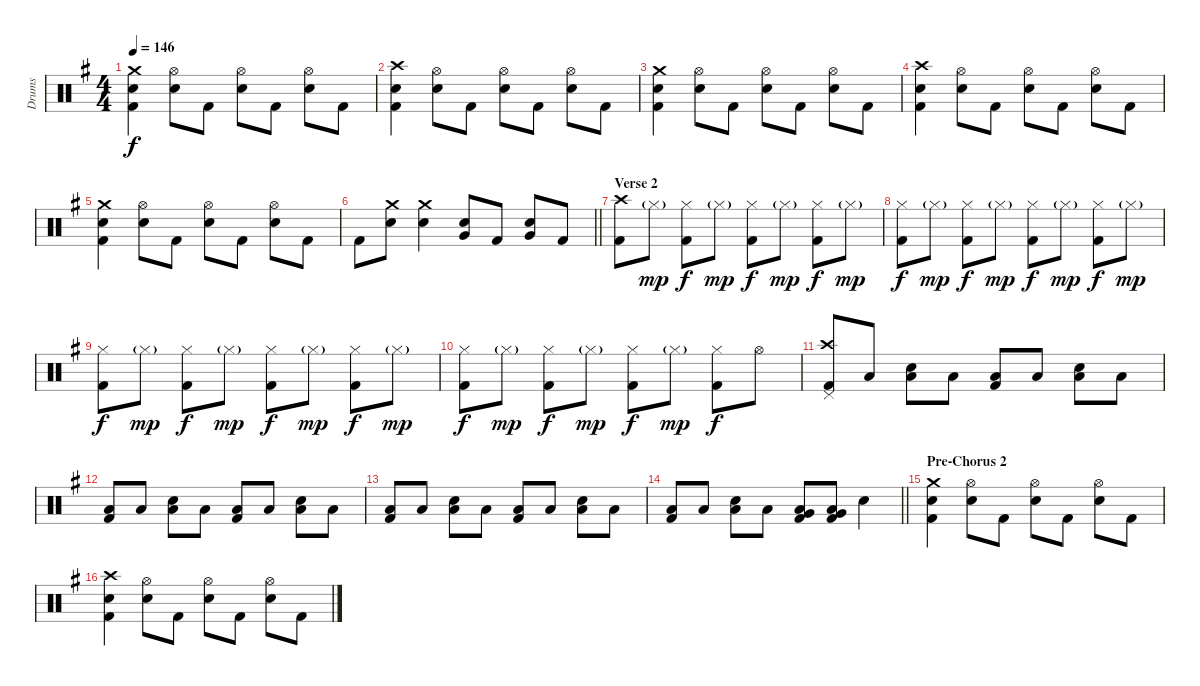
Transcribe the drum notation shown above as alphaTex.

\track ("Drums" "Drums") {instrument percussion}
\staff {score}
\articulation defaults
\ts (4 4)
\tempo 146
\clef neutral
\ks g
("Crash medium (hit)" "Electric Snare (hit)" "Kick (hit) 2").4{dy f} ("Hi-Hat (open)" "Electric Snare (hit)").8 "Kick (hit) 2".8 ("Hi-Hat (open)" "Electric Snare (hit)").8 "Kick (hit) 2".8 ("Hi-Hat (open)" "Electric Snare (hit)").8 "Kick (hit) 2".8 |
("Crash high (hit)" "Electric Snare (hit)" "Kick (hit) 2").4 ("Hi-Hat (open)" "Electric Snare (hit)").8 "Kick (hit) 2".8 ("Hi-Hat (open)" "Electric Snare (hit)").8 "Kick (hit) 2".8 ("Hi-Hat (open)" "Electric Snare (hit)").8 "Kick (hit) 2".8 |
("Crash medium (hit)" "Electric Snare (hit)" "Kick (hit) 2").4 ("Hi-Hat (open)" "Electric Snare (hit)").8 "Kick (hit) 2".8 ("Hi-Hat (open)" "Electric Snare (hit)").8 "Kick (hit) 2".8 ("Hi-Hat (open)" "Electric Snare (hit)").8 "Kick (hit) 2".8 |
("Crash high (hit)" "Electric Snare (hit)" "Kick (hit) 2").4 ("Hi-Hat (open)" "Electric Snare (hit)").8 "Kick (hit) 2".8 ("Hi-Hat (open)" "Electric Snare (hit)").8 "Kick (hit) 2".8 ("Hi-Hat (open)" "Electric Snare (hit)").8 "Kick (hit) 2".8 |
("Crash medium (hit)" "Electric Snare (hit)" "Kick (hit) 2").4 ("Hi-Hat (open)" "Electric Snare (hit)").8 "Kick (hit) 2".8 ("Hi-Hat (open)" "Electric Snare (hit)").8 "Kick (hit) 2".8 ("Hi-Hat (open)" "Electric Snare (hit)").8 "Kick (hit) 2".8 |
\barLineRight lightlight "Kick (hit) 2".8
("Crash medium (hit)" "Electric Snare (hit)").8 ("Crash medium (hit)" "Electric Snare (hit)").4 ("Very Low Tom (hit)" "Electric Snare (hit)").8 "Kick (hit) 2".8 ("Very Low Tom (hit)" "Electric Snare (hit)").8 "Kick (hit) 2".8 |
\section ("" "Verse 2")
("Crash high (hit)" "Kick (hit) 2").8 "Hi-Hat (closed)"{g}.8{dy mp} ("Hi-Hat (closed)" "Kick (hit) 2").8{dy f} "Hi-Hat (closed)"{g}.8{dy mp} ("Hi-Hat (closed)" "Kick (hit) 2").8{dy f} "Hi-Hat (closed)"{g}.8{dy mp} ("Hi-Hat (closed)" "Kick (hit) 2").8{dy f} "Hi-Hat (closed)"{g}.8{dy mp} |
("Hi-Hat (closed)" "Kick (hit) 2").8{dy f} "Hi-Hat (closed)"{g}.8{dy mp} ("Hi-Hat (closed)" "Kick (hit) 2").8{dy f} "Hi-Hat (closed)"{g}.8{dy mp} ("Hi-Hat (closed)" "Kick (hit) 2").8{dy f} "Hi-Hat (closed)"{g}.8{dy mp} ("Hi-Hat (closed)" "Kick (hit) 2").8{dy f} "Hi-Hat (closed)"{g}.8{dy mp} |
("Hi-Hat (closed)" "Kick (hit) 2").8{dy f} "Hi-Hat (closed)"{g}.8{dy mp} ("Hi-Hat (closed)" "Kick (hit) 2").8{dy f} "Hi-Hat (closed)"{g}.8{dy mp} ("Hi-Hat (closed)" "Kick (hit) 2").8{dy f} "Hi-Hat (closed)"{g}.8{dy mp} ("Hi-Hat (closed)" "Kick (hit) 2").8{dy f} "Hi-Hat (closed)"{g}.8{dy mp} |
("Hi-Hat (closed)" "Kick (hit) 2").8{dy f} "Hi-Hat (closed)"{g}.8{dy mp} ("Hi-Hat (closed)" "Kick (hit) 2").8{dy f} "Hi-Hat (closed)"{g}.8{dy mp} ("Hi-Hat (closed)" "Kick (hit) 2").8{dy f} "Hi-Hat (closed)"{g}.8{dy mp} ("Hi-Hat (closed)" "Kick (hit) 2").8{dy f} "Hi-Hat (open)".8 |
("Crash high (hit)" "Pedal Hi-Hat (hit)" "Kick (hit) 2").8 "Low Floor Tom (hit)".8 ("Low Floor Tom (hit)" "Electric Snare (hit)").8 "Low Floor Tom (hit)".8 ("Low Floor Tom (hit)" "Kick (hit) 2").8 "Low Floor Tom (hit)".8 ("Low Floor Tom (hit)" "Electric Snare (hit)").8 "Low Floor Tom (hit)".8 |
("Low Floor Tom (hit)" "Kick (hit) 2").8 "Low Floor Tom (hit)".8 ("Low Floor Tom (hit)" "Electric Snare (hit)").8 "Low Floor Tom (hit)".8 ("Low Floor Tom (hit)" "Kick (hit) 2").8 "Low Floor Tom (hit)".8 ("Low Floor Tom (hit)" "Electric Snare (hit)").8 "Low Floor Tom (hit)".8 |
("Low Floor Tom (hit)" "Kick (hit) 2").8 "Low Floor Tom (hit)".8 ("Low Floor Tom (hit)" "Electric Snare (hit)").8 "Low Floor Tom (hit)".8 ("Low Floor Tom (hit)" "Kick (hit) 2").8 "Low Floor Tom (hit)".8 ("Low Floor Tom (hit)" "Electric Snare (hit)").8 "Low Floor Tom (hit)".8 |
\barLineRight lightlight
("Low Floor Tom (hit)" "Kick (hit) 2").8 "Low Floor Tom (hit)".8 ("Low Floor Tom (hit)" "Electric Snare (hit)").8 "Low Floor Tom (hit)".8 ("Low Tom (hit)" "Very Low Tom (hit)" "Kick (hit) 2").8 ("Low Tom (hit)" "Very Low Tom (hit)" "Kick (hit) 2").8 "Electric Snare (hit)".4 |
\section ("" "Pre-Chorus 2")
("Crash medium (hit)" "Electric Snare (hit)" "Kick (hit) 2").4 ("Hi-Hat (open)" "Electric Snare (hit)").8 "Kick (hit) 2".8 ("Hi-Hat (open)" "Electric Snare (hit)").8 "Kick (hit) 2".8 ("Hi-Hat (open)" "Electric Snare (hit)").8 "Kick (hit) 2".8 |
("Crash high (hit)" "Electric Snare (hit)" "Kick (hit) 2").4 ("Hi-Hat (open)" "Electric Snare (hit)").8 "Kick (hit) 2".8 ("Hi-Hat (open)" "Electric Snare (hit)").8 "Kick (hit) 2".8 ("Hi-Hat (open)" "Electric Snare (hit)").8 "Kick (hit) 2".8
